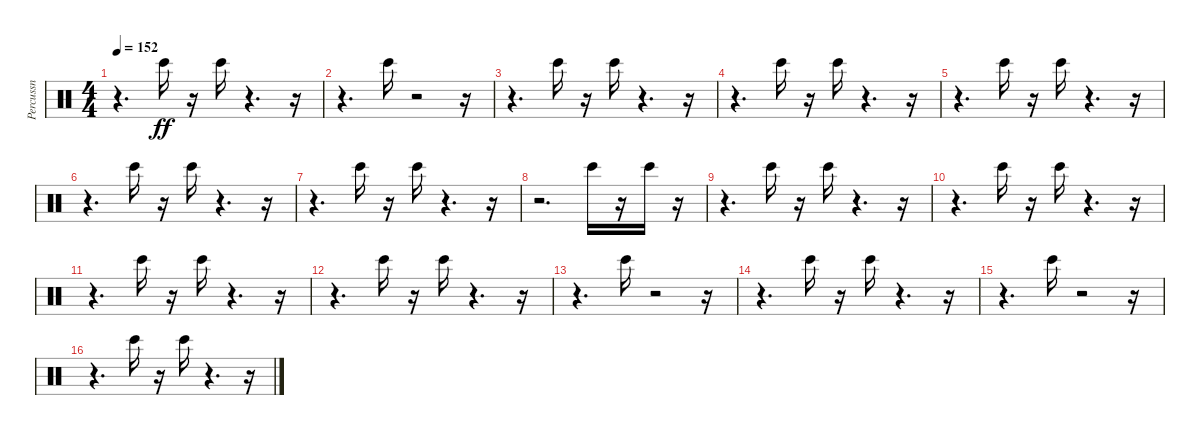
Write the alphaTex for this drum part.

\track ("Percussn" "Percussn") {instrument percussion}
\staff {score}
\articulation defaults
\ts (4 4)
\tempo 152
\clef neutral
\ks c
r.4{d dy ff} "Bongo High (hit)".16{balance 8} r.16 "Bongo High (hit)".16{balance 11} r.4{d} r.16 |
r.4{d} "Bongo High (hit)".16{balance 5} r.2 r.16 |
r.4{d} "Bongo High (hit)".16{balance 1} r.16 "Bongo High (hit)".16{balance 9} r.4{d} r.16 |
r.4{d} "Bongo High (hit)".16{balance 8} r.16 "Bongo High (hit)".16{balance 2} r.4{d} r.16 |
r.4{d} "Bongo High (hit)".16{balance 6} r.16 "Bongo High (hit)".16{balance 16} r.4{d} r.16 |
r.4{d} "Bongo High (hit)".16{balance 9} r.16 "Bongo High (hit)".16{balance 11} r.4{d} r.16 |
r.4{d} "Bongo High (hit)".16{balance 4} r.16 "Bongo High (hit)".16{balance 5} r.4{d} r.16 |
r.2{d} "Bongo High (hit)".16{balance 14} r.16 "Bongo High (hit)".16{balance 3} r.16 |
r.4{d} "Bongo High (hit)".16{balance 8} r.16 "Bongo High (hit)".16{balance 8} r.4{d} r.16 |
r.4{d} "Bongo High (hit)".16{balance 1} r.16 "Bongo High (hit)".16{balance 4} r.4{d} r.16 |
r.4{d} "Bongo High (hit)".16{balance 8} r.16 "Bongo High (hit)".16{balance 15} r.4{d} r.16 |
r.4{d} "Bongo High (hit)".16{balance 3} r.16 "Bongo High (hit)".16{balance 4} r.4{d} r.16 |
r.4{d} "Bongo High (hit)".16{balance 2} r.2 r.16 |
r.4{d} "Bongo High (hit)".16{balance 11} r.16 "Bongo High (hit)".16{balance 15} r.4{d} r.16 |
r.4{d} "Bongo High (hit)".16{balance 12} r.2 r.16 |
r.4{d} "Bongo High (hit)".16{balance 10} r.16 "Bongo High (hit)".16{balance 3} r.4{d} r.16
